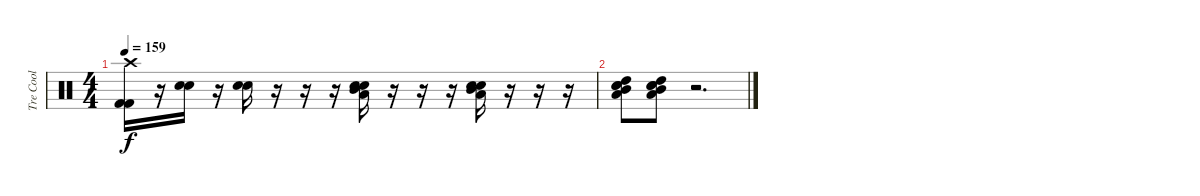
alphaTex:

\track ("Tre Cool" "Tre Cool") {instrument percussion}
\staff {score}
\articulation defaults
\ts (4 4)
\tempo 159
\clef neutral
\ks c
("Crash high (hit)" "Kick (hit) 2" "Kick (hit) 2").16{dy f} r.16 ("Snare (hit) 2" "Snare (hit) 2").16 r.16 ("Snare (hit) 2" "Snare (hit) 2").16 r.16 r.16 r.16 ("Low Tom (hit)" "Mid Tom (hit)" "Snare (hit) 2" "Snare (hit) 2").16 r.16 r.16 r.16 ("Low Tom (hit)" "Mid Tom (hit)" "Snare (hit) 2" "Snare (hit) 2").16 r.16 r.16 r.16 |
("High Tom (hit)" "Mid Tom (hit)" "Low Tom (hit)" "Snare (hit) 2" "Snare (hit) 2").8 ("High Tom (hit)" "Mid Tom (hit)" "Low Tom (hit)" "Snare (hit) 2" "Snare (hit) 2").8 r.2{d}
